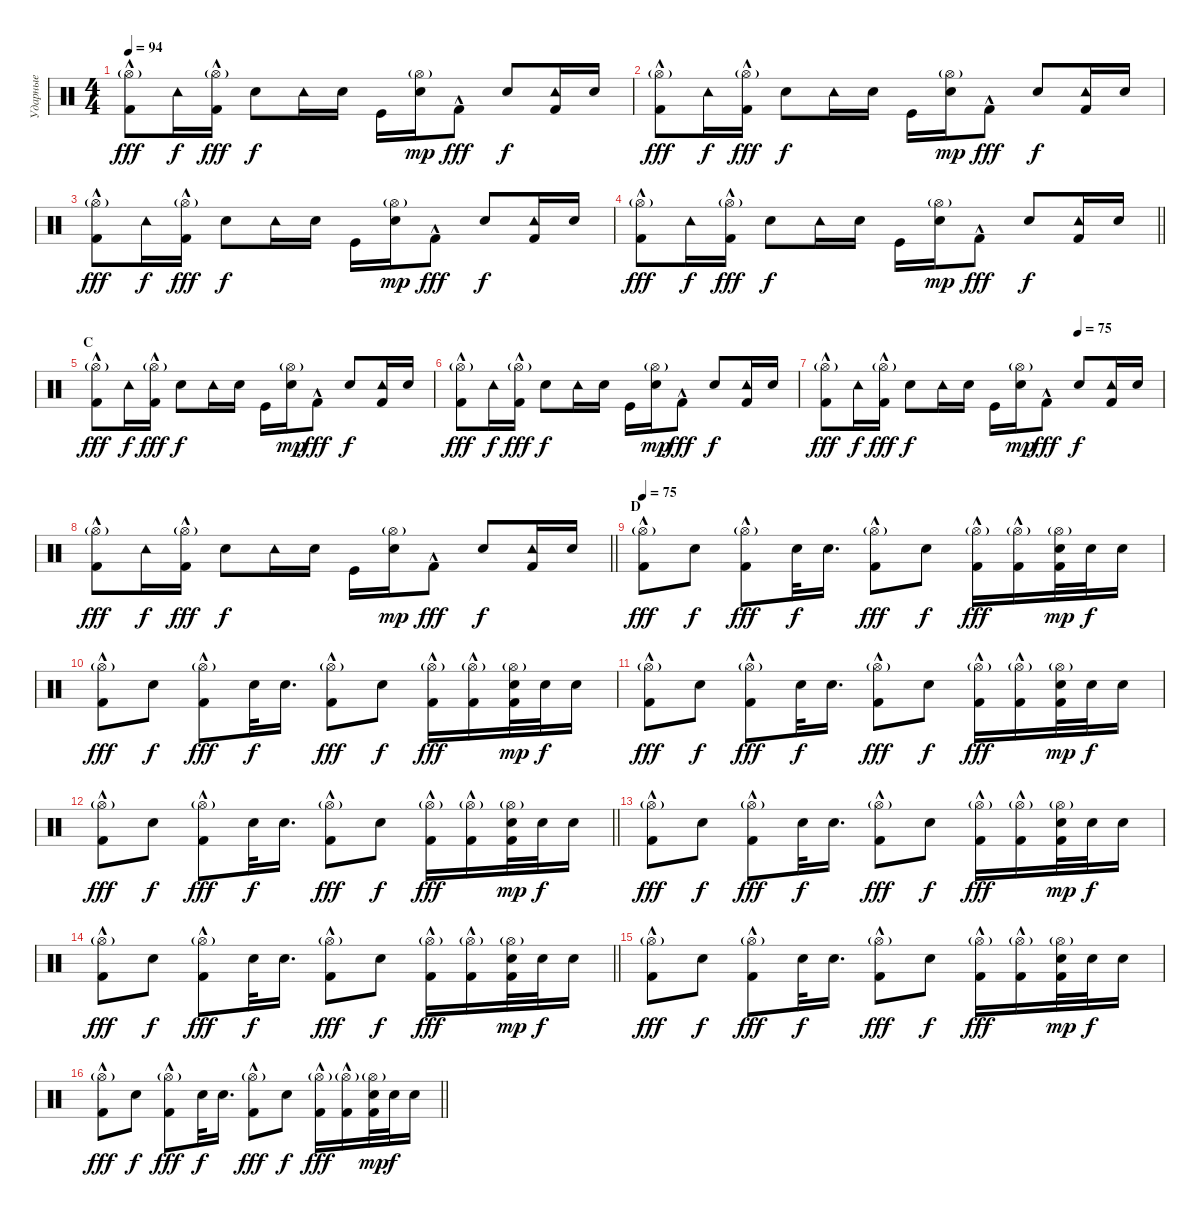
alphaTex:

\track ("Ударные" "Ударные") {instrument percussion}
\staff {score}
\articulation defaults
\ts (4 4)
\tempo 94
\clef neutral
\ks c
("Hi-Hat (open)"{g} "Kick (hit) 2"{hac}).8{dy fff} "Tambourine (hit)".16{dy f} ("Hi-Hat (open)"{g} "Kick (hit) 2"{hac}).16{dy fff} "Electric Snare (hit)".8{dy f} "Tambourine (hit)".16 "Electric Snare (hit)".16 "Kick (hit)".16 ("Hi-Hat (open)"{g} "Electric Snare (hit)").16{dy mp} "Kick (hit) 2"{hac}.8{dy fff} "Electric Snare (hit)".8{dy f} ("Tambourine (hit)" "Kick (hit) 2").16 "Electric Snare (hit)".16 |
("Hi-Hat (open)"{g} "Kick (hit) 2"{hac}).8{dy fff} "Tambourine (hit)".16{dy f} ("Hi-Hat (open)"{g} "Kick (hit) 2"{hac}).16{dy fff} "Electric Snare (hit)".8{dy f} "Tambourine (hit)".16 "Electric Snare (hit)".16 "Kick (hit)".16 ("Hi-Hat (open)"{g} "Electric Snare (hit)").16{dy mp} "Kick (hit) 2"{hac}.8{dy fff} "Electric Snare (hit)".8{dy f} ("Tambourine (hit)" "Kick (hit) 2").16 "Electric Snare (hit)".16 |
("Hi-Hat (open)"{g} "Kick (hit) 2"{hac}).8{dy fff} "Tambourine (hit)".16{dy f} ("Hi-Hat (open)"{g} "Kick (hit) 2"{hac}).16{dy fff} "Electric Snare (hit)".8{dy f} "Tambourine (hit)".16 "Electric Snare (hit)".16 "Kick (hit)".16 ("Hi-Hat (open)"{g} "Electric Snare (hit)").16{dy mp} "Kick (hit) 2"{hac}.8{dy fff} "Electric Snare (hit)".8{dy f} ("Tambourine (hit)" "Kick (hit) 2").16 "Electric Snare (hit)".16 |
\barLineRight lightlight
("Hi-Hat (open)"{g} "Kick (hit) 2"{hac}).8{dy fff} "Tambourine (hit)".16{dy f} ("Hi-Hat (open)"{g} "Kick (hit) 2"{hac}).16{dy fff} "Electric Snare (hit)".8{dy f} "Tambourine (hit)".16 "Electric Snare (hit)".16 "Kick (hit)".16 ("Hi-Hat (open)"{g} "Electric Snare (hit)").16{dy mp} "Kick (hit) 2"{hac}.8{dy fff} "Electric Snare (hit)".8{dy f} ("Tambourine (hit)" "Kick (hit) 2").16 "Electric Snare (hit)".16 |
\section ("" "C")
("Hi-Hat (open)"{g} "Kick (hit) 2"{hac}).8{dy fff} "Tambourine (hit)".16{dy f} ("Hi-Hat (open)"{g} "Kick (hit) 2"{hac}).16{dy fff} "Electric Snare (hit)".8{dy f} "Tambourine (hit)".16 "Electric Snare (hit)".16 "Kick (hit)".16 ("Hi-Hat (open)"{g} "Electric Snare (hit)").16{dy mp} "Kick (hit) 2"{hac}.8{dy fff} "Electric Snare (hit)".8{dy f} ("Tambourine (hit)" "Kick (hit) 2").16 "Electric Snare (hit)".16 |
("Hi-Hat (open)"{g} "Kick (hit) 2"{hac}).8{dy fff} "Tambourine (hit)".16{dy f} ("Hi-Hat (open)"{g} "Kick (hit) 2"{hac}).16{dy fff} "Electric Snare (hit)".8{dy f} "Tambourine (hit)".16 "Electric Snare (hit)".16 "Kick (hit)".16 ("Hi-Hat (open)"{g} "Electric Snare (hit)").16{dy mp} "Kick (hit) 2"{hac}.8{dy fff} "Electric Snare (hit)".8{dy f} ("Tambourine (hit)" "Kick (hit) 2").16 "Electric Snare (hit)".16 |
\tempo (75 0.75)
("Hi-Hat (open)"{g} "Kick (hit) 2"{hac}).8{dy fff} "Tambourine (hit)".16{dy f} ("Hi-Hat (open)"{g} "Kick (hit) 2"{hac}).16{dy fff} "Electric Snare (hit)".8{dy f} "Tambourine (hit)".16 "Electric Snare (hit)".16 "Kick (hit)".16 ("Hi-Hat (open)"{g} "Electric Snare (hit)").16{dy mp} "Kick (hit) 2"{hac}.8{dy fff} "Electric Snare (hit)".8{dy f} ("Tambourine (hit)" "Kick (hit) 2").16 "Electric Snare (hit)".16 |
\barLineRight lightlight
("Hi-Hat (open)"{g} "Kick (hit) 2"{hac}).8{dy fff} "Tambourine (hit)".16{dy f} ("Hi-Hat (open)"{g} "Kick (hit) 2"{hac}).16{dy fff} "Electric Snare (hit)".8{dy f} "Tambourine (hit)".16 "Electric Snare (hit)".16 "Kick (hit)".16 ("Hi-Hat (open)"{g} "Electric Snare (hit)").16{dy mp} "Kick (hit) 2"{hac}.8{dy fff} "Electric Snare (hit)".8{dy f} ("Tambourine (hit)" "Kick (hit) 2").16 "Electric Snare (hit)".16 |
\section ("" "D")
\tempo 75
("Hi-Hat (open)"{g} "Kick (hit) 2"{hac}).8{dy fff} "Electric Snare (hit)".8{dy f} ("Hi-Hat (open)"{g} "Kick (hit) 2"{hac}).8{dy fff} "Electric Snare (hit)".32{dy f} "Electric Snare (hit)".16{d} ("Hi-Hat (open)"{g} "Kick (hit) 2"{hac}).8{dy fff} "Electric Snare (hit)".8{dy f} ("Hi-Hat (open)"{g} "Kick (hit) 2"{hac}).16{dy fff} ("Hi-Hat (open)"{g} "Kick (hit) 2"{hac}).16 ("Hi-Hat (open)"{g} "Electric Snare (hit)" "Kick (hit) 2").32{dy mp} "Electric Snare (hit)".32{dy f} "Electric Snare (hit)".16 |
("Hi-Hat (open)"{g} "Kick (hit) 2"{hac}).8{dy fff} "Electric Snare (hit)".8{dy f} ("Hi-Hat (open)"{g} "Kick (hit) 2"{hac}).8{dy fff} "Electric Snare (hit)".32{dy f} "Electric Snare (hit)".16{d} ("Hi-Hat (open)"{g} "Kick (hit) 2"{hac}).8{dy fff} "Electric Snare (hit)".8{dy f} ("Hi-Hat (open)"{g} "Kick (hit) 2"{hac}).16{dy fff} ("Hi-Hat (open)"{g} "Kick (hit) 2"{hac}).16 ("Hi-Hat (open)"{g} "Electric Snare (hit)" "Kick (hit) 2").32{dy mp} "Electric Snare (hit)".32{dy f} "Electric Snare (hit)".16 |
("Hi-Hat (open)"{g} "Kick (hit) 2"{hac}).8{dy fff} "Electric Snare (hit)".8{dy f} ("Hi-Hat (open)"{g} "Kick (hit) 2"{hac}).8{dy fff} "Electric Snare (hit)".32{dy f} "Electric Snare (hit)".16{d} ("Hi-Hat (open)"{g} "Kick (hit) 2"{hac}).8{dy fff} "Electric Snare (hit)".8{dy f} ("Hi-Hat (open)"{g} "Kick (hit) 2"{hac}).16{dy fff} ("Hi-Hat (open)"{g} "Kick (hit) 2"{hac}).16 ("Hi-Hat (open)"{g} "Electric Snare (hit)" "Kick (hit) 2").32{dy mp} "Electric Snare (hit)".32{dy f} "Electric Snare (hit)".16 |
\barLineRight lightlight
("Hi-Hat (open)"{g} "Kick (hit) 2"{hac}).8{dy fff} "Electric Snare (hit)".8{dy f} ("Hi-Hat (open)"{g} "Kick (hit) 2"{hac}).8{dy fff} "Electric Snare (hit)".32{dy f} "Electric Snare (hit)".16{d} ("Hi-Hat (open)"{g} "Kick (hit) 2"{hac}).8{dy fff} "Electric Snare (hit)".8{dy f} ("Hi-Hat (open)"{g} "Kick (hit) 2"{hac}).16{dy fff} ("Hi-Hat (open)"{g} "Kick (hit) 2"{hac}).16 ("Hi-Hat (open)"{g} "Electric Snare (hit)" "Kick (hit) 2").32{dy mp} "Electric Snare (hit)".32{dy f} "Electric Snare (hit)".16 |
\section ("" " ")
("Hi-Hat (open)"{g} "Kick (hit) 2"{hac}).8{dy fff} "Electric Snare (hit)".8{dy f} ("Hi-Hat (open)"{g} "Kick (hit) 2"{hac}).8{dy fff} "Electric Snare (hit)".32{dy f} "Electric Snare (hit)".16{d} ("Hi-Hat (open)"{g} "Kick (hit) 2"{hac}).8{dy fff} "Electric Snare (hit)".8{dy f} ("Hi-Hat (open)"{g} "Kick (hit) 2"{hac}).16{dy fff} ("Hi-Hat (open)"{g} "Kick (hit) 2"{hac}).16 ("Hi-Hat (open)"{g} "Electric Snare (hit)" "Kick (hit) 2").32{dy mp} "Electric Snare (hit)".32{dy f} "Electric Snare (hit)".16 |
\barLineRight lightlight
("Hi-Hat (open)"{g} "Kick (hit) 2"{hac}).8{dy fff} "Electric Snare (hit)".8{dy f} ("Hi-Hat (open)"{g} "Kick (hit) 2"{hac}).8{dy fff} "Electric Snare (hit)".32{dy f} "Electric Snare (hit)".16{d} ("Hi-Hat (open)"{g} "Kick (hit) 2"{hac}).8{dy fff} "Electric Snare (hit)".8{dy f} ("Hi-Hat (open)"{g} "Kick (hit) 2"{hac}).16{dy fff} ("Hi-Hat (open)"{g} "Kick (hit) 2"{hac}).16 ("Hi-Hat (open)"{g} "Electric Snare (hit)" "Kick (hit) 2").32{dy mp} "Electric Snare (hit)".32{dy f} "Electric Snare (hit)".16 |
("Hi-Hat (open)"{g} "Kick (hit) 2"{hac}).8{dy fff} "Electric Snare (hit)".8{dy f} ("Hi-Hat (open)"{g} "Kick (hit) 2"{hac}).8{dy fff} "Electric Snare (hit)".32{dy f} "Electric Snare (hit)".16{d} ("Hi-Hat (open)"{g} "Kick (hit) 2"{hac}).8{dy fff} "Electric Snare (hit)".8{dy f} ("Hi-Hat (open)"{g} "Kick (hit) 2"{hac}).16{dy fff} ("Hi-Hat (open)"{g} "Kick (hit) 2"{hac}).16 ("Hi-Hat (open)"{g} "Electric Snare (hit)" "Kick (hit) 2").32{dy mp} "Electric Snare (hit)".32{dy f} "Electric Snare (hit)".16 |
\barLineRight lightlight
("Hi-Hat (open)"{g} "Kick (hit) 2"{hac}).8{dy fff} "Electric Snare (hit)".8{dy f} ("Hi-Hat (open)"{g} "Kick (hit) 2"{hac}).8{dy fff} "Electric Snare (hit)".32{dy f} "Electric Snare (hit)".16{d} ("Hi-Hat (open)"{g} "Kick (hit) 2"{hac}).8{dy fff} "Electric Snare (hit)".8{dy f} ("Hi-Hat (open)"{g} "Kick (hit) 2"{hac}).16{dy fff} ("Hi-Hat (open)"{g} "Kick (hit) 2"{hac}).16 ("Hi-Hat (open)"{g} "Electric Snare (hit)" "Kick (hit) 2").32{dy mp} "Electric Snare (hit)".32{dy f} "Electric Snare (hit)".16
